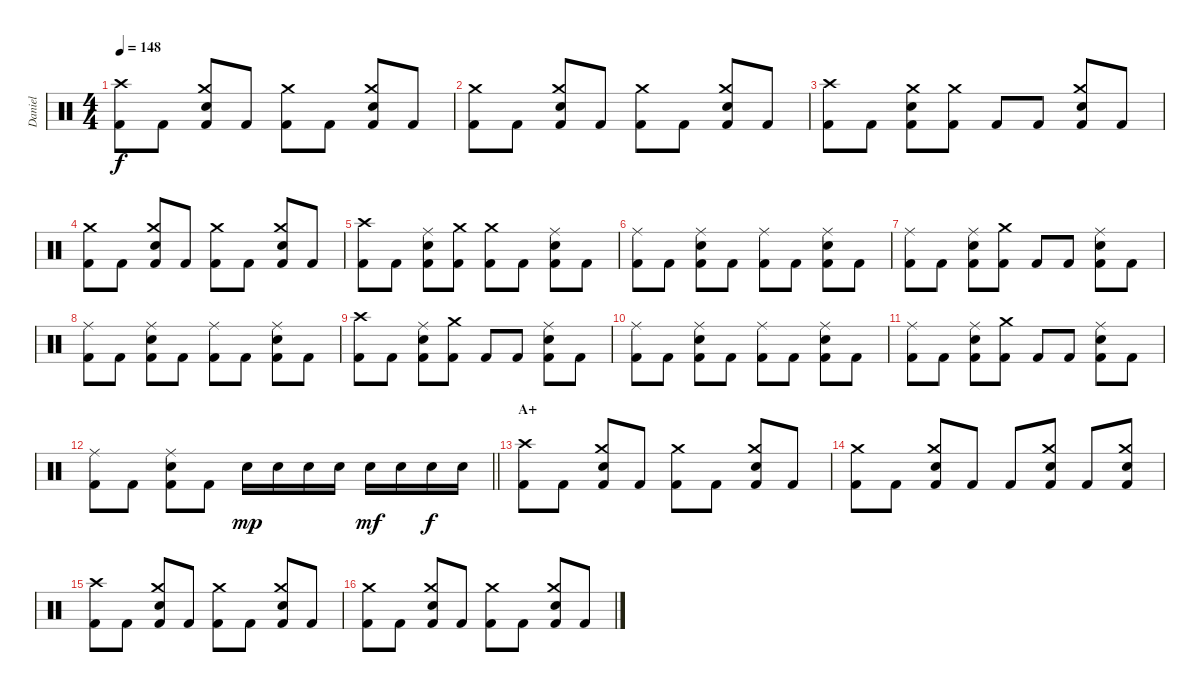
\track ("Daniel" "Daniel") {instrument percussion}
\staff {score}
\articulation defaults
\ts (4 4)
\tempo 148
\clef neutral
\ks c
("Crash high (hit)" "Kick (hit) 2").8{dy f} "Kick (hit) 2".8 ("Crash medium (hit)" "Snare (hit) 2" "Kick (hit) 2").8 "Kick (hit) 2".8 ("Crash medium (hit)" "Kick (hit) 2").8 "Kick (hit) 2".8 ("Crash medium (hit)" "Snare (hit) 2" "Kick (hit) 2").8 "Kick (hit) 2".8 |
("Crash medium (hit)" "Kick (hit) 2").8 "Kick (hit) 2".8 ("Crash medium (hit)" "Snare (hit) 2" "Kick (hit) 2").8 "Kick (hit) 2".8 ("Crash medium (hit)" "Kick (hit) 2").8 "Kick (hit) 2".8 ("Crash medium (hit)" "Snare (hit) 2" "Kick (hit) 2").8 "Kick (hit) 2".8 |
("Crash high (hit)" "Kick (hit) 2").8 "Kick (hit) 2".8 ("Crash medium (hit)" "Snare (hit) 2" "Kick (hit) 2").8 ("Crash medium (hit)" "Kick (hit) 2").8 "Kick (hit) 2".8 "Kick (hit) 2".8 ("Crash medium (hit)" "Snare (hit) 2" "Kick (hit) 2").8 "Kick (hit) 2".8 |
("Crash medium (hit)" "Kick (hit) 2").8 "Kick (hit) 2".8 ("Crash medium (hit)" "Snare (hit) 2" "Kick (hit) 2").8 "Kick (hit) 2".8 ("Crash medium (hit)" "Kick (hit) 2").8 "Kick (hit) 2".8 ("Crash medium (hit)" "Snare (hit) 2" "Kick (hit) 2").8 "Kick (hit) 2".8 |
("Crash high (hit)" "Kick (hit) 2").8 "Kick (hit) 2".8 ("Ride (middle)" "Snare (hit) 2" "Kick (hit) 2").8 ("Crash medium (hit)" "Kick (hit) 2").8 ("Crash medium (hit)" "Kick (hit) 2").8 "Kick (hit) 2".8 ("Ride (middle)" "Snare (hit) 2" "Kick (hit) 2").8 "Kick (hit) 2".8 |
("Ride (middle)" "Kick (hit) 2").8 "Kick (hit) 2".8 ("Ride (middle)" "Snare (hit) 2" "Kick (hit) 2").8 "Kick (hit) 2".8 ("Ride (middle)" "Kick (hit) 2").8 "Kick (hit) 2".8 ("Ride (middle)" "Snare (hit) 2" "Kick (hit) 2").8 "Kick (hit) 2".8 |
("Ride (middle)" "Kick (hit) 2").8 "Kick (hit) 2".8 ("Ride (middle)" "Snare (hit) 2" "Kick (hit) 2").8 ("Crash medium (hit)" "Kick (hit) 2").8 "Kick (hit) 2".8 "Kick (hit) 2".8 ("Ride (middle)" "Snare (hit) 2" "Kick (hit) 2").8 "Kick (hit) 2".8 |
("Ride (middle)" "Kick (hit) 2").8 "Kick (hit) 2".8 ("Ride (middle)" "Snare (hit) 2" "Kick (hit) 2").8 "Kick (hit) 2".8 ("Ride (middle)" "Kick (hit) 2").8 "Kick (hit) 2".8 ("Ride (middle)" "Snare (hit) 2" "Kick (hit) 2").8 "Kick (hit) 2".8 |
("Crash high (hit)" "Kick (hit) 2").8 "Kick (hit) 2".8 ("Ride (middle)" "Snare (hit) 2" "Kick (hit) 2").8 ("Crash medium (hit)" "Kick (hit) 2").8 "Kick (hit) 2".8 "Kick (hit) 2".8 ("Ride (middle)" "Snare (hit) 2" "Kick (hit) 2").8 "Kick (hit) 2".8 |
("Ride (middle)" "Kick (hit) 2").8 "Kick (hit) 2".8 ("Ride (middle)" "Snare (hit) 2" "Kick (hit) 2").8 "Kick (hit) 2".8 ("Ride (middle)" "Kick (hit) 2").8 "Kick (hit) 2".8 ("Ride (middle)" "Snare (hit) 2" "Kick (hit) 2").8 "Kick (hit) 2".8 |
("Ride (middle)" "Kick (hit) 2").8 "Kick (hit) 2".8 ("Ride (middle)" "Snare (hit) 2" "Kick (hit) 2").8 ("Crash medium (hit)" "Kick (hit) 2").8 "Kick (hit) 2".8 "Kick (hit) 2".8 ("Ride (middle)" "Snare (hit) 2" "Kick (hit) 2").8 "Kick (hit) 2".8 |
\barLineRight lightlight
("Ride (middle)" "Kick (hit) 2").8 "Kick (hit) 2".8 ("Ride (middle)" "Snare (hit) 2" "Kick (hit) 2").8 "Kick (hit) 2".8 "Snare (hit) 2".16{dy mp} "Snare (hit) 2".16 "Snare (hit) 2".16 "Snare (hit) 2".16 "Snare (hit) 2".16{dy mf} "Snare (hit) 2".16 "Snare (hit) 2".16{dy f} "Snare (hit) 2".16 |
\section ("" "A+")
("Crash high (hit)" "Kick (hit) 2").8 "Kick (hit) 2".8 ("Crash medium (hit)" "Snare (hit) 2" "Kick (hit) 2").8 "Kick (hit) 2".8 ("Crash medium (hit)" "Kick (hit) 2").8 "Kick (hit) 2".8 ("Crash medium (hit)" "Snare (hit) 2" "Kick (hit) 2").8 "Kick (hit) 2".8 |
("Crash medium (hit)" "Kick (hit) 2").8 "Kick (hit) 2".8 ("Crash medium (hit)" "Snare (hit) 2" "Kick (hit) 2").8 "Kick (hit) 2".8 "Kick (hit) 2".8 ("Crash medium (hit)" "Snare (hit) 2" "Kick (hit) 2").8 "Kick (hit) 2".8 ("Crash medium (hit)" "Snare (hit) 2" "Kick (hit) 2").8 |
("Crash high (hit)" "Kick (hit) 2").8 "Kick (hit) 2".8 ("Crash medium (hit)" "Snare (hit) 2" "Kick (hit) 2").8 "Kick (hit) 2".8 ("Crash medium (hit)" "Kick (hit) 2").8 "Kick (hit) 2".8 ("Crash medium (hit)" "Snare (hit) 2" "Kick (hit) 2").8 "Kick (hit) 2".8 |
("Crash medium (hit)" "Kick (hit) 2").8 "Kick (hit) 2".8 ("Crash medium (hit)" "Snare (hit) 2" "Kick (hit) 2").8 "Kick (hit) 2".8 ("Crash medium (hit)" "Kick (hit) 2").8 "Kick (hit) 2".8 ("Crash medium (hit)" "Snare (hit) 2" "Kick (hit) 2").8 "Kick (hit) 2".8
